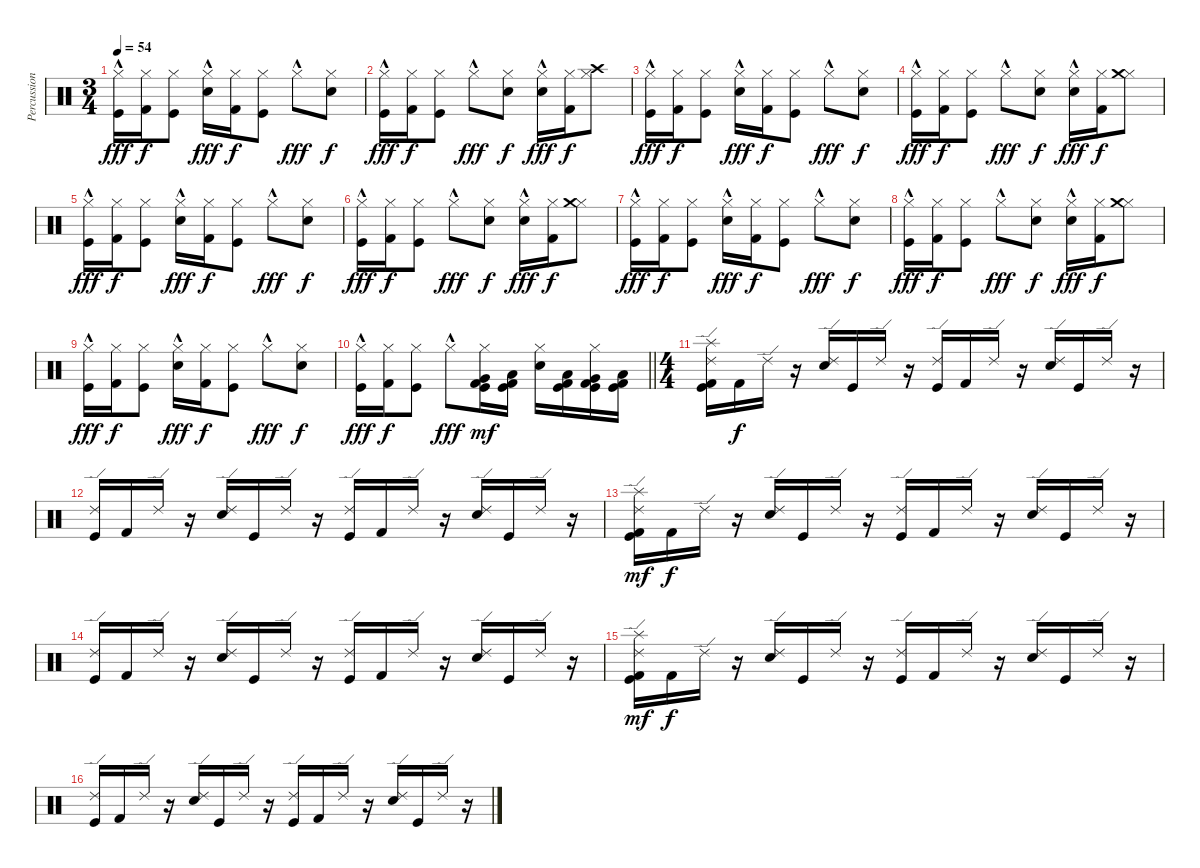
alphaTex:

\track ("Percussion" "Percussion") {instrument percussion}
\staff {score}
\articulation defaults
\ts (3 4)
\tempo 54
\clef neutral
\ks c
("Hi-Hat (closed)"{hac} "Kick (hit)").16{dy fff} ("Hi-Hat (closed)" "Kick (hit) 2").16{dy f} ("Hi-Hat (closed)" "Kick (hit)").8 ("Hi-Hat (closed)"{hac} "Snare (hit) 2").16{dy fff} ("Hi-Hat (closed)" "Kick (hit) 2").16{dy f} ("Hi-Hat (closed)" "Kick (hit)").8 "Hi-Hat (closed)"{hac}.8{dy fff} ("Hi-Hat (closed)" "Snare (hit) 2").8{dy f} |
("Hi-Hat (closed)"{hac} "Kick (hit)").16{dy fff} ("Hi-Hat (closed)" "Kick (hit) 2").16{dy f} ("Hi-Hat (closed)" "Kick (hit)").8 "Hi-Hat (closed)"{hac}.8{dy fff} ("Hi-Hat (closed)" "Snare (hit) 2").8{dy f} ("Hi-Hat (closed)"{hac} "Snare (hit) 2").16{dy fff} ("Hi-Hat (closed)" "Kick (hit) 2").16{dy f} ("Hi-Hat (closed)" "Crash high (hit)").8 |
("Hi-Hat (closed)"{hac} "Kick (hit)").16{dy fff} ("Hi-Hat (closed)" "Kick (hit) 2").16{dy f} ("Hi-Hat (closed)" "Kick (hit)").8 ("Hi-Hat (closed)"{hac} "Snare (hit) 2").16{dy fff} ("Hi-Hat (closed)" "Kick (hit) 2").16{dy f} ("Hi-Hat (closed)" "Kick (hit)").8 "Hi-Hat (closed)"{hac}.8{dy fff} ("Hi-Hat (closed)" "Snare (hit) 2").8{dy f} |
("Hi-Hat (closed)"{hac} "Kick (hit)").16{dy fff} ("Hi-Hat (closed)" "Kick (hit) 2").16{dy f} ("Hi-Hat (closed)" "Kick (hit)").8 "Hi-Hat (closed)"{hac}.8{dy fff} ("Hi-Hat (closed)" "Snare (hit) 2").8{dy f} ("Hi-Hat (closed)"{hac} "Snare (hit) 2").16{dy fff} ("Hi-Hat (closed)" "Kick (hit) 2").16{dy f} ("Hi-Hat (closed)" "Crash medium (hit)").8 |
("Hi-Hat (closed)"{hac} "Kick (hit)").16{dy fff} ("Hi-Hat (closed)" "Kick (hit) 2").16{dy f} ("Hi-Hat (closed)" "Kick (hit)").8 ("Hi-Hat (closed)"{hac} "Snare (hit) 2").16{dy fff} ("Hi-Hat (closed)" "Kick (hit) 2").16{dy f} ("Hi-Hat (closed)" "Kick (hit)").8 "Hi-Hat (closed)"{hac}.8{dy fff} ("Hi-Hat (closed)" "Snare (hit) 2").8{dy f} |
("Hi-Hat (closed)"{hac} "Kick (hit)").16{dy fff} ("Hi-Hat (closed)" "Kick (hit) 2").16{dy f} ("Hi-Hat (closed)" "Kick (hit)").8 "Hi-Hat (closed)"{hac}.8{dy fff} ("Hi-Hat (closed)" "Snare (hit) 2").8{dy f} ("Hi-Hat (closed)"{hac} "Snare (hit) 2").16{dy fff} ("Hi-Hat (closed)" "Kick (hit) 2").16{dy f} ("Hi-Hat (closed)" "Crash medium (hit)").8 |
("Hi-Hat (closed)"{hac} "Kick (hit)").16{dy fff} ("Hi-Hat (closed)" "Kick (hit) 2").16{dy f} ("Hi-Hat (closed)" "Kick (hit)").8 ("Hi-Hat (closed)"{hac} "Snare (hit) 2").16{dy fff} ("Hi-Hat (closed)" "Kick (hit) 2").16{dy f} ("Hi-Hat (closed)" "Kick (hit)").8 "Hi-Hat (closed)"{hac}.8{dy fff} ("Hi-Hat (closed)" "Snare (hit) 2").8{dy f} |
("Hi-Hat (closed)"{hac} "Kick (hit)").16{dy fff} ("Hi-Hat (closed)" "Kick (hit) 2").16{dy f} ("Hi-Hat (closed)" "Kick (hit)").8 "Hi-Hat (closed)"{hac}.8{dy fff} ("Hi-Hat (closed)" "Snare (hit) 2").8{dy f} ("Hi-Hat (closed)"{hac} "Snare (hit) 2").16{dy fff} ("Hi-Hat (closed)" "Kick (hit) 2").16{dy f} ("Hi-Hat (closed)" "Crash medium (hit)").8 |
("Hi-Hat (closed)"{hac} "Kick (hit)").16{dy fff} ("Hi-Hat (closed)" "Kick (hit) 2").16{dy f} ("Hi-Hat (closed)" "Kick (hit)").8 ("Hi-Hat (closed)"{hac} "Snare (hit) 2").16{dy fff} ("Hi-Hat (closed)" "Kick (hit) 2").16{dy f} ("Hi-Hat (closed)" "Kick (hit)").8 "Hi-Hat (closed)"{hac}.8{dy fff} ("Hi-Hat (closed)" "Snare (hit) 2").8{dy f} |
\barLineRight lightlight
("Hi-Hat (closed)"{hac} "Kick (hit)").16{dy fff} ("Hi-Hat (closed)" "Kick (hit) 2").16{dy f} ("Hi-Hat (closed)" "Kick (hit)").8 "Hi-Hat (closed)"{hac}.8{dy fff} ("Hi-Hat (closed)" "Very Low Tom (hit)" "Kick (hit)" "Kick (hit) 2").16{dy mf} ("Low Tom (hit)" "Kick (hit)" "Kick (hit) 2").16 ("Hi-Hat (closed)" "Electric Snare (hit)").16 ("Low Tom (hit)" "Kick (hit)" "Kick (hit) 2").16 ("Hi-Hat (closed)" "Very Low Tom (hit)" "Kick (hit)" "Kick (hit) 2").16 ("Low Floor Tom (hit)" "Kick (hit)" "Kick (hit) 2").16 |
\ts (4 4)
\section ("" " ")
("Ride (edge) 2" "Splash (hit)" "Kick (hit)" "Kick (hit) 2").16 "Kick (hit) 2".16{dy f} "Ride (edge) 2".16 r.16 ("Ride (edge) 2" "Snare (hit) 2").16 "Kick (hit)".16 "Ride (edge) 2".16 r.16 ("Ride (edge) 2" "Kick (hit)").16 "Kick (hit) 2".16 "Ride (edge) 2".16 r.16 ("Ride (edge) 2" "Snare (hit) 2").16 "Kick (hit)".16 "Ride (edge) 2".16 r.16 |
("Ride (edge) 2" "Kick (hit)").16 "Kick (hit) 2".16 "Ride (edge) 2".16 r.16 ("Ride (edge) 2" "Snare (hit) 2").16 "Kick (hit)".16 "Ride (edge) 2".16 r.16 ("Ride (edge) 2" "Kick (hit)").16 "Kick (hit) 2".16 "Ride (edge) 2".16 r.16 ("Ride (edge) 2" "Snare (hit) 2").16 "Kick (hit)".16 "Ride (edge) 2".16 r.16 |
("Ride (edge) 2" "Splash (hit)" "Kick (hit)" "Kick (hit) 2").16{dy mf} "Kick (hit) 2".16{dy f} "Ride (edge) 2".16 r.16 ("Ride (edge) 2" "Snare (hit) 2").16 "Kick (hit)".16 "Ride (edge) 2".16 r.16 ("Ride (edge) 2" "Kick (hit)").16 "Kick (hit) 2".16 "Ride (edge) 2".16 r.16 ("Ride (edge) 2" "Snare (hit) 2").16 "Kick (hit)".16 "Ride (edge) 2".16 r.16 |
("Ride (edge) 2" "Kick (hit)").16 "Kick (hit) 2".16 "Ride (edge) 2".16 r.16 ("Ride (edge) 2" "Snare (hit) 2").16 "Kick (hit)".16 "Ride (edge) 2".16 r.16 ("Ride (edge) 2" "Kick (hit)").16 "Kick (hit) 2".16 "Ride (edge) 2".16 r.16 ("Ride (edge) 2" "Snare (hit) 2").16 "Kick (hit)".16 "Ride (edge) 2".16 r.16 |
("Ride (edge) 2" "Splash (hit)" "Kick (hit)" "Kick (hit) 2").16{dy mf} "Kick (hit) 2".16{dy f} "Ride (edge) 2".16 r.16 ("Ride (edge) 2" "Snare (hit) 2").16 "Kick (hit)".16 "Ride (edge) 2".16 r.16 ("Ride (edge) 2" "Kick (hit)").16 "Kick (hit) 2".16 "Ride (edge) 2".16 r.16 ("Ride (edge) 2" "Snare (hit) 2").16 "Kick (hit)".16 "Ride (edge) 2".16 r.16 |
("Ride (edge) 2" "Kick (hit)").16 "Kick (hit) 2".16 "Ride (edge) 2".16 r.16 ("Ride (edge) 2" "Snare (hit) 2").16 "Kick (hit)".16 "Ride (edge) 2".16 r.16 ("Ride (edge) 2" "Kick (hit)").16 "Kick (hit) 2".16 "Ride (edge) 2".16 r.16 ("Ride (edge) 2" "Snare (hit) 2").16 "Kick (hit)".16 "Ride (edge) 2".16 r.16
